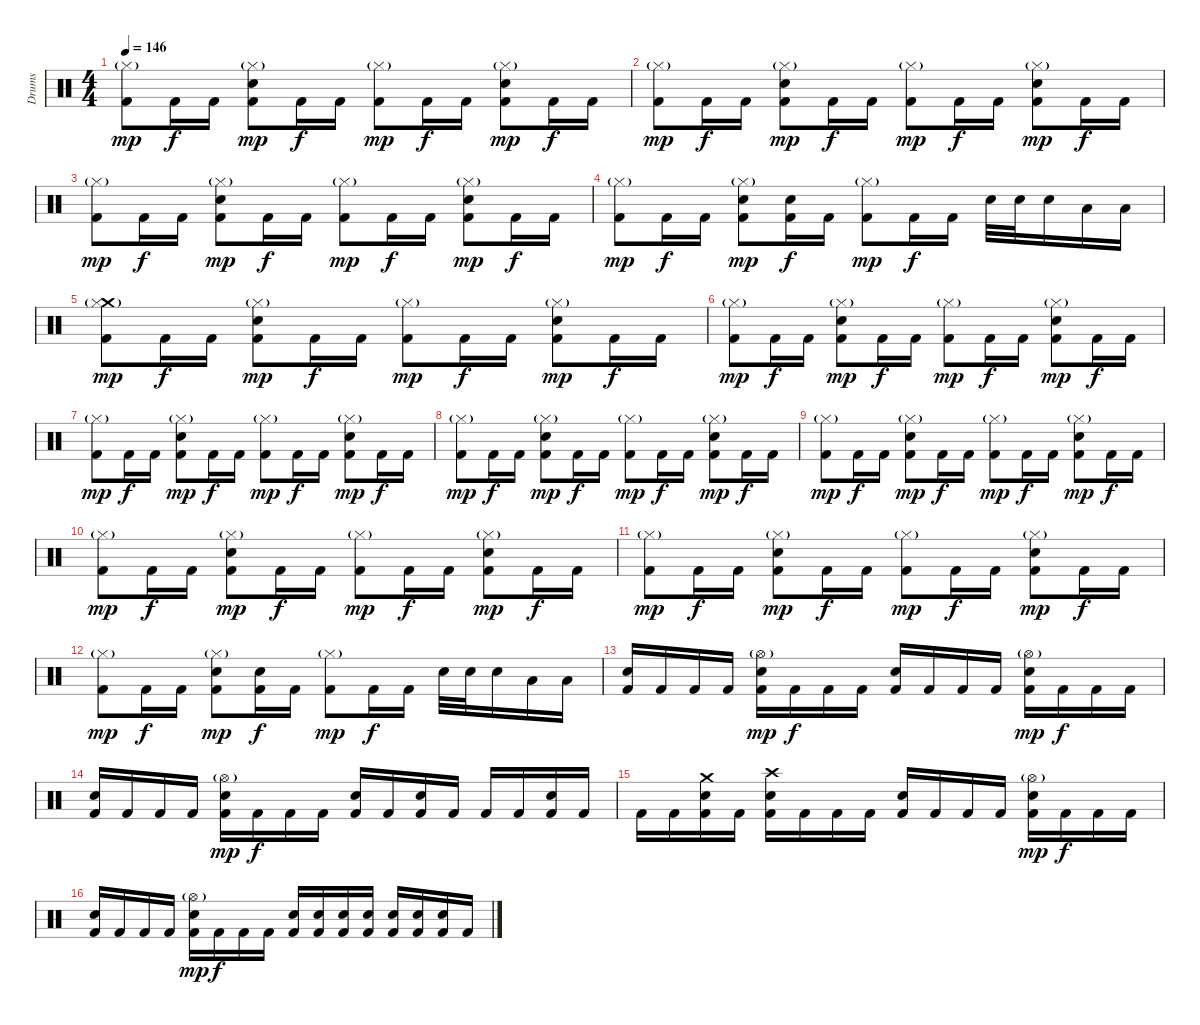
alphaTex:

\track ("Drums" "Drums") {instrument percussion}
\staff {score}
\articulation defaults
\ts (4 4)
\tempo 146
\clef neutral
\ks c
("Hi-Hat (closed)"{g} "Kick (hit) 2").8{dy mp} "Kick (hit) 2".16{dy f} "Kick (hit) 2".16 ("Snare (hit) 2" "Hi-Hat (closed)"{g} "Kick (hit) 2").8{dy mp} "Kick (hit) 2".16{dy f} "Kick (hit) 2".16 ("Hi-Hat (closed)"{g} "Kick (hit) 2").8{dy mp} "Kick (hit) 2".16{dy f} "Kick (hit) 2".16 ("Snare (hit) 2" "Hi-Hat (closed)"{g} "Kick (hit) 2").8{dy mp} "Kick (hit) 2".16{dy f} "Kick (hit) 2".16 |
("Hi-Hat (closed)"{g} "Kick (hit) 2").8{dy mp} "Kick (hit) 2".16{dy f} "Kick (hit) 2".16 ("Snare (hit) 2" "Hi-Hat (closed)"{g} "Kick (hit) 2").8{dy mp} "Kick (hit) 2".16{dy f} "Kick (hit) 2".16 ("Hi-Hat (closed)"{g} "Kick (hit) 2").8{dy mp} "Kick (hit) 2".16{dy f} "Kick (hit) 2".16 ("Snare (hit) 2" "Hi-Hat (closed)"{g} "Kick (hit) 2").8{dy mp} "Kick (hit) 2".16{dy f} "Kick (hit) 2".16 |
("Hi-Hat (closed)"{g} "Kick (hit) 2").8{dy mp} "Kick (hit) 2".16{dy f} "Kick (hit) 2".16 ("Snare (hit) 2" "Hi-Hat (closed)"{g} "Kick (hit) 2").8{dy mp} "Kick (hit) 2".16{dy f} "Kick (hit) 2".16 ("Hi-Hat (closed)"{g} "Kick (hit) 2").8{dy mp} "Kick (hit) 2".16{dy f} "Kick (hit) 2".16 ("Snare (hit) 2" "Hi-Hat (closed)"{g} "Kick (hit) 2").8{dy mp} "Kick (hit) 2".16{dy f} "Kick (hit) 2".16 |
("Hi-Hat (closed)"{g} "Kick (hit) 2").8{dy mp} "Kick (hit) 2".16{dy f} "Kick (hit) 2".16 ("Snare (hit) 2" "Hi-Hat (closed)"{g} "Kick (hit) 2").8{dy mp} ("Snare (hit) 2" "Kick (hit) 2").16{dy f} "Kick (hit) 2".16 ("Hi-Hat (closed)"{g} "Kick (hit) 2").8{dy mp} "Kick (hit) 2".16{dy f} "Kick (hit) 2".16 "Snare (hit) 2".32 "Snare (hit) 2".32 "Snare (hit) 2".16 "Low Tom (hit)".16 "Low Tom (hit)".16 |
("Crash medium (hit)" "Hi-Hat (closed)"{g} "Kick (hit) 2").8{dy mp} "Kick (hit) 2".16{dy f} "Kick (hit) 2".16 ("Snare (hit) 2" "Hi-Hat (closed)"{g} "Kick (hit) 2").8{dy mp} "Kick (hit) 2".16{dy f} "Kick (hit) 2".16 ("Hi-Hat (closed)"{g} "Kick (hit) 2").8{dy mp} "Kick (hit) 2".16{dy f} "Kick (hit) 2".16 ("Snare (hit) 2" "Hi-Hat (closed)"{g} "Kick (hit) 2").8{dy mp} "Kick (hit) 2".16{dy f} "Kick (hit) 2".16 |
("Hi-Hat (closed)"{g} "Kick (hit) 2").8{dy mp} "Kick (hit) 2".16{dy f} "Kick (hit) 2".16 ("Snare (hit) 2" "Hi-Hat (closed)"{g} "Kick (hit) 2").8{dy mp} "Kick (hit) 2".16{dy f} "Kick (hit) 2".16 ("Hi-Hat (closed)"{g} "Kick (hit) 2").8{dy mp} "Kick (hit) 2".16{dy f} "Kick (hit) 2".16 ("Snare (hit) 2" "Hi-Hat (closed)"{g} "Kick (hit) 2").8{dy mp} "Kick (hit) 2".16{dy f} "Kick (hit) 2".16 |
("Hi-Hat (closed)"{g} "Kick (hit) 2").8{dy mp} "Kick (hit) 2".16{dy f} "Kick (hit) 2".16 ("Snare (hit) 2" "Hi-Hat (closed)"{g} "Kick (hit) 2").8{dy mp} "Kick (hit) 2".16{dy f} "Kick (hit) 2".16 ("Hi-Hat (closed)"{g} "Kick (hit) 2").8{dy mp} "Kick (hit) 2".16{dy f} "Kick (hit) 2".16 ("Snare (hit) 2" "Hi-Hat (closed)"{g} "Kick (hit) 2").8{dy mp} "Kick (hit) 2".16{dy f} "Kick (hit) 2".16 |
("Hi-Hat (closed)"{g} "Kick (hit) 2").8{dy mp} "Kick (hit) 2".16{dy f} "Kick (hit) 2".16 ("Snare (hit) 2" "Hi-Hat (closed)"{g} "Kick (hit) 2").8{dy mp} "Kick (hit) 2".16{dy f} "Kick (hit) 2".16 ("Hi-Hat (closed)"{g} "Kick (hit) 2").8{dy mp} "Kick (hit) 2".16{dy f} "Kick (hit) 2".16 ("Snare (hit) 2" "Hi-Hat (closed)"{g} "Kick (hit) 2").8{dy mp} "Kick (hit) 2".16{dy f} "Kick (hit) 2".16 |
("Hi-Hat (closed)"{g} "Kick (hit) 2").8{dy mp} "Kick (hit) 2".16{dy f} "Kick (hit) 2".16 ("Snare (hit) 2" "Hi-Hat (closed)"{g} "Kick (hit) 2").8{dy mp} "Kick (hit) 2".16{dy f} "Kick (hit) 2".16 ("Hi-Hat (closed)"{g} "Kick (hit) 2").8{dy mp} "Kick (hit) 2".16{dy f} "Kick (hit) 2".16 ("Snare (hit) 2" "Hi-Hat (closed)"{g} "Kick (hit) 2").8{dy mp} "Kick (hit) 2".16{dy f} "Kick (hit) 2".16 |
("Hi-Hat (closed)"{g} "Kick (hit) 2").8{dy mp} "Kick (hit) 2".16{dy f} "Kick (hit) 2".16 ("Snare (hit) 2" "Hi-Hat (closed)"{g} "Kick (hit) 2").8{dy mp} "Kick (hit) 2".16{dy f} "Kick (hit) 2".16 ("Hi-Hat (closed)"{g} "Kick (hit) 2").8{dy mp} "Kick (hit) 2".16{dy f} "Kick (hit) 2".16 ("Snare (hit) 2" "Hi-Hat (closed)"{g} "Kick (hit) 2").8{dy mp} "Kick (hit) 2".16{dy f} "Kick (hit) 2".16 |
("Hi-Hat (closed)"{g} "Kick (hit) 2").8{dy mp} "Kick (hit) 2".16{dy f} "Kick (hit) 2".16 ("Snare (hit) 2" "Hi-Hat (closed)"{g} "Kick (hit) 2").8{dy mp} "Kick (hit) 2".16{dy f} "Kick (hit) 2".16 ("Hi-Hat (closed)"{g} "Kick (hit) 2").8{dy mp} "Kick (hit) 2".16{dy f} "Kick (hit) 2".16 ("Snare (hit) 2" "Hi-Hat (closed)"{g} "Kick (hit) 2").8{dy mp} "Kick (hit) 2".16{dy f} "Kick (hit) 2".16 |
("Hi-Hat (closed)"{g} "Kick (hit) 2").8{dy mp} "Kick (hit) 2".16{dy f} "Kick (hit) 2".16 ("Snare (hit) 2" "Hi-Hat (closed)"{g} "Kick (hit) 2").8{dy mp} ("Snare (hit) 2" "Kick (hit) 2").16{dy f} "Kick (hit) 2".16 ("Hi-Hat (closed)"{g} "Kick (hit) 2").8{dy mp} "Kick (hit) 2".16{dy f} "Kick (hit) 2".16 "Snare (hit) 2".32 "Snare (hit) 2".32 "Snare (hit) 2".16 "Low Tom (hit)".16 "Low Tom (hit)".16 |
("Snare (hit) 2" "Kick (hit) 2").16 "Kick (hit) 2".16 "Kick (hit) 2".16 "Kick (hit) 2".16 ("Snare (hit) 2" "Hi-Hat (open)"{g} "Kick (hit) 2").16{dy mp} "Kick (hit) 2".16{dy f} "Kick (hit) 2".16 "Kick (hit) 2".16 ("Snare (hit) 2" "Kick (hit) 2").16 "Kick (hit) 2".16 "Kick (hit) 2".16 "Kick (hit) 2".16 ("Snare (hit) 2" "Hi-Hat (open)"{g} "Kick (hit) 2").16{dy mp} "Kick (hit) 2".16{dy f} "Kick (hit) 2".16 "Kick (hit) 2".16 |
("Snare (hit) 2" "Kick (hit) 2").16 "Kick (hit) 2".16 "Kick (hit) 2".16 "Kick (hit) 2".16 ("Snare (hit) 2" "Hi-Hat (open)"{g} "Kick (hit) 2").16{dy mp} "Kick (hit) 2".16{dy f} "Kick (hit) 2".16 "Kick (hit) 2".16 ("Snare (hit) 2" "Kick (hit) 2").16 "Kick (hit) 2".16 ("Snare (hit) 2" "Kick (hit) 2").16 "Kick (hit) 2".16 "Kick (hit) 2".16 "Kick (hit) 2".16 ("Snare (hit) 2" "Kick (hit) 2").16 "Kick (hit) 2".16 |
"Kick (hit) 2".16 "Kick (hit) 2".16 ("Crash medium (hit)" "Snare (hit) 2" "Kick (hit) 2").16 "Kick (hit) 2".16 ("Crash high (hit)" "Snare (hit) 2" "Kick (hit) 2").16 "Kick (hit) 2".16 "Kick (hit) 2".16 "Kick (hit) 2".16 ("Snare (hit) 2" "Kick (hit) 2").16 "Kick (hit) 2".16 "Kick (hit) 2".16 "Kick (hit) 2".16 ("Snare (hit) 2" "Hi-Hat (open)"{g} "Kick (hit) 2").16{dy mp} "Kick (hit) 2".16{dy f} "Kick (hit) 2".16 "Kick (hit) 2".16 |
("Snare (hit) 2" "Kick (hit) 2").16 "Kick (hit) 2".16 "Kick (hit) 2".16 "Kick (hit) 2".16 ("Snare (hit) 2" "Hi-Hat (open)"{g} "Kick (hit) 2").16{dy mp} "Kick (hit) 2".16{dy f} "Kick (hit) 2".16 "Kick (hit) 2".16 ("Snare (hit) 2" "Kick (hit) 2").16 ("Snare (hit) 2" "Kick (hit) 2").16 ("Snare (hit) 2" "Kick (hit) 2").16 ("Snare (hit) 2" "Kick (hit) 2").16 ("Snare (hit) 2" "Kick (hit) 2").16 ("Snare (hit) 2" "Kick (hit) 2").16 ("Snare (hit) 2" "Kick (hit) 2").16 "Kick (hit) 2".16
